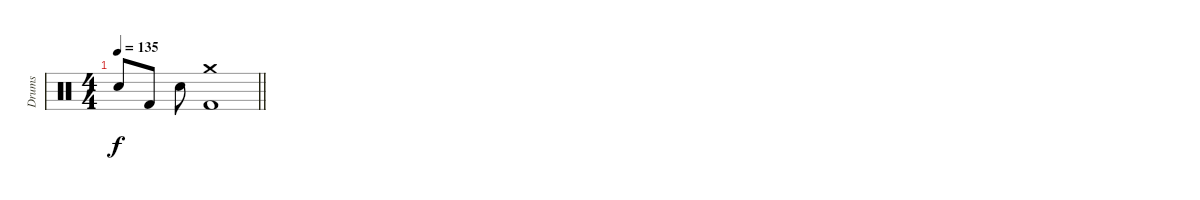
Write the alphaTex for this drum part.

\track ("Drums" "Drums") {instrument percussion}
\staff {score}
\articulation defaults
\ts (4 4)
\tempo 135
\clef neutral
\barLineRight lightlight
\ks aminor "Electric Snare (hit)".8{dy f} "Kick (hit) 2".8 "Electric Snare (hit)".8
("Crash medium (hit)" "Kick (hit) 2").1
